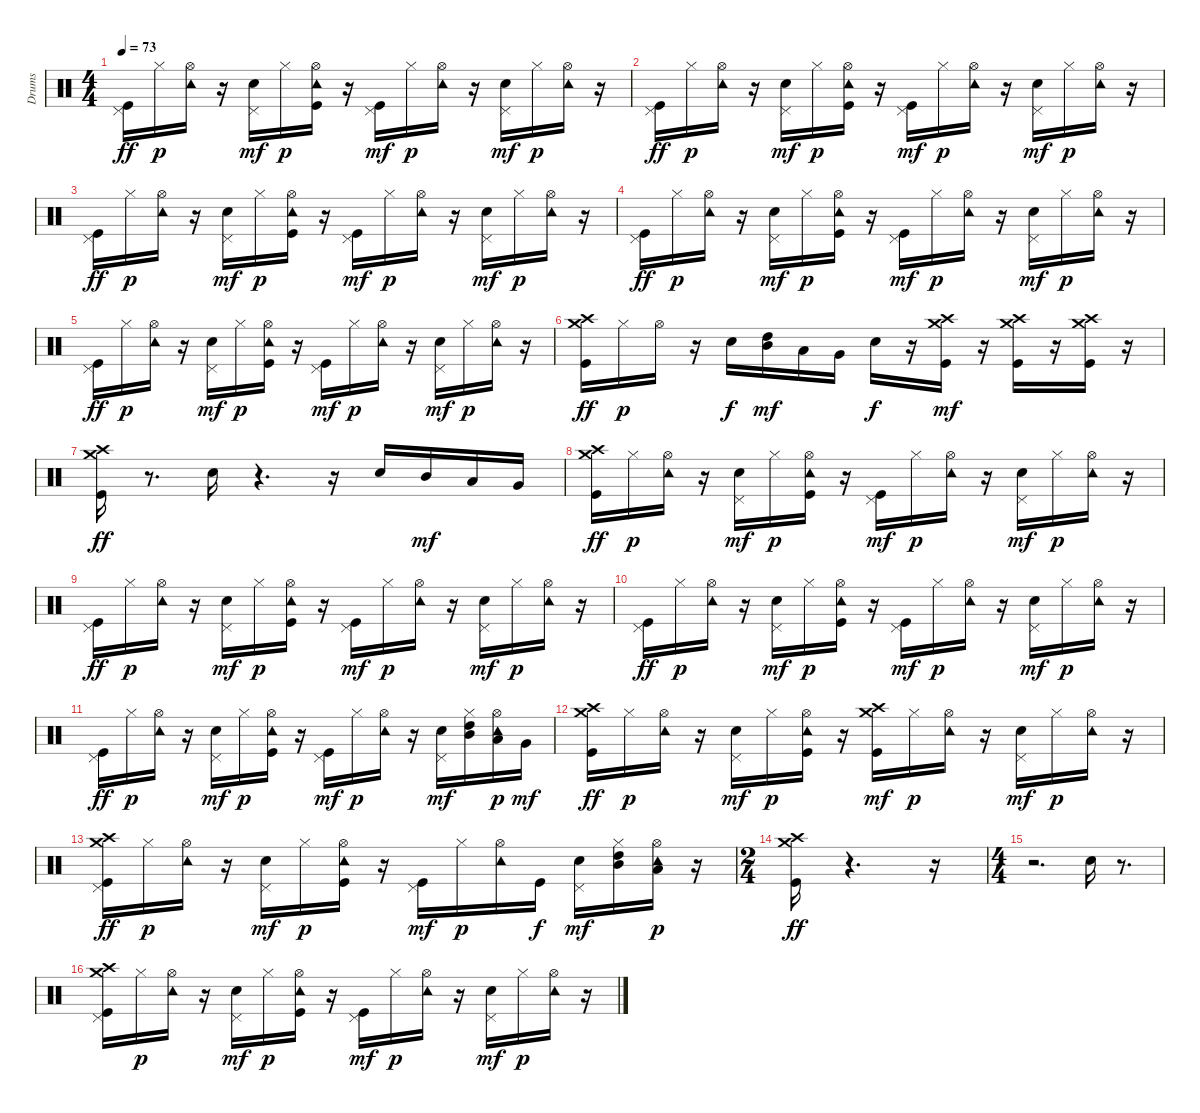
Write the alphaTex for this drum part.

\track ("Drums" "Drums") {instrument percussion}
\staff {score}
\articulation defaults
\ts (4 4)
\tempo 73
\clef neutral
\ks c
("Pedal Hi-Hat (hit)" "Kick (hit)").16{dy ff} "Hi-Hat (closed)".16{dy p} ("Tambourine (hit)" "Hi-Hat (open)").16 r.16 ("Pedal Hi-Hat (hit)" "Snare (hit) 2").16{dy mf} "Hi-Hat (closed)".16{dy p} ("Tambourine (hit)" "Hi-Hat (open)" "Kick (hit)").16 r.16 ("Pedal Hi-Hat (hit)" "Kick (hit)").16{dy mf} "Hi-Hat (closed)".16{dy p} ("Tambourine (hit)" "Hi-Hat (open)").16 r.16 ("Pedal Hi-Hat (hit)" "Snare (hit) 2").16{dy mf} "Hi-Hat (closed)".16{dy p} ("Tambourine (hit)" "Hi-Hat (open)").16 r.16 |
("Pedal Hi-Hat (hit)" "Kick (hit)").16{dy ff} "Hi-Hat (closed)".16{dy p} ("Tambourine (hit)" "Hi-Hat (open)").16 r.16 ("Pedal Hi-Hat (hit)" "Snare (hit) 2").16{dy mf} "Hi-Hat (closed)".16{dy p} ("Tambourine (hit)" "Hi-Hat (open)" "Kick (hit)").16 r.16 ("Pedal Hi-Hat (hit)" "Kick (hit)").16{dy mf} "Hi-Hat (closed)".16{dy p} ("Tambourine (hit)" "Hi-Hat (open)").16 r.16 ("Pedal Hi-Hat (hit)" "Snare (hit) 2").16{dy mf} "Hi-Hat (closed)".16{dy p} ("Tambourine (hit)" "Hi-Hat (open)").16 r.16 |
("Pedal Hi-Hat (hit)" "Kick (hit)").16{dy ff} "Hi-Hat (closed)".16{dy p} ("Tambourine (hit)" "Hi-Hat (open)").16 r.16 ("Pedal Hi-Hat (hit)" "Snare (hit) 2").16{dy mf} "Hi-Hat (closed)".16{dy p} ("Tambourine (hit)" "Hi-Hat (open)" "Kick (hit)").16 r.16 ("Pedal Hi-Hat (hit)" "Kick (hit)").16{dy mf} "Hi-Hat (closed)".16{dy p} ("Tambourine (hit)" "Hi-Hat (open)").16 r.16 ("Pedal Hi-Hat (hit)" "Snare (hit) 2").16{dy mf} "Hi-Hat (closed)".16{dy p} ("Tambourine (hit)" "Hi-Hat (open)").16 r.16 |
("Pedal Hi-Hat (hit)" "Kick (hit)").16{dy ff} "Hi-Hat (closed)".16{dy p} ("Tambourine (hit)" "Hi-Hat (open)").16 r.16 ("Pedal Hi-Hat (hit)" "Snare (hit) 2").16{dy mf} "Hi-Hat (closed)".16{dy p} ("Tambourine (hit)" "Hi-Hat (open)" "Kick (hit)").16 r.16 ("Pedal Hi-Hat (hit)" "Kick (hit)").16{dy mf} "Hi-Hat (closed)".16{dy p} ("Tambourine (hit)" "Hi-Hat (open)").16 r.16 ("Pedal Hi-Hat (hit)" "Snare (hit) 2").16{dy mf} "Hi-Hat (closed)".16{dy p} ("Tambourine (hit)" "Hi-Hat (open)").16 r.16 |
("Pedal Hi-Hat (hit)" "Kick (hit)").16{dy ff} "Hi-Hat (closed)".16{dy p} ("Tambourine (hit)" "Hi-Hat (open)").16 r.16 ("Pedal Hi-Hat (hit)" "Snare (hit) 2").16{dy mf} "Hi-Hat (closed)".16{dy p} ("Tambourine (hit)" "Hi-Hat (open)" "Kick (hit)").16 r.16 ("Pedal Hi-Hat (hit)" "Kick (hit)").16{dy mf} "Hi-Hat (closed)".16{dy p} ("Tambourine (hit)" "Hi-Hat (open)").16 r.16 ("Pedal Hi-Hat (hit)" "Snare (hit) 2").16{dy mf} "Hi-Hat (closed)".16{dy p} ("Tambourine (hit)" "Hi-Hat (open)").16 r.16 |
("Crash high (hit)" "Crash medium (hit)" "Kick (hit)").16{dy ff} "Hi-Hat (closed)".16{dy p} "Hi-Hat (open)".16 r.16 "Snare (hit) 2".16{dy f} ("Mid Tom (hit)" "High Tom (hit)").16{dy mf} "Low Tom (hit)".16 "Very Low Tom (hit)".16 "Snare (hit) 2".16{dy f} r.16 ("Crash high (hit)" "Crash medium (hit)" "Kick (hit)").16{dy mf} r.16 ("Crash high (hit)" "Crash medium (hit)" "Kick (hit)").16 r.16 ("Crash high (hit)" "Crash medium (hit)" "Kick (hit)").16 r.16 |
("Crash medium (hit)" "Crash high (hit)" "Kick (hit)").16{dy ff} r.8{d} "Snare (hit) 2".16 r.4{d} r.16 "Snare (hit) 2".16 "Mid Tom (hit)".16{dy mf} "Low Tom (hit)".16 "Very Low Tom (hit)".16 |
("Crash high (hit)" "Crash medium (hit)" "Kick (hit)").16{dy ff} "Hi-Hat (closed)".16{dy p} ("Tambourine (hit)" "Hi-Hat (open)").16 r.16 ("Pedal Hi-Hat (hit)" "Snare (hit) 2").16{dy mf} "Hi-Hat (closed)".16{dy p} ("Tambourine (hit)" "Hi-Hat (open)" "Kick (hit)").16 r.16 ("Pedal Hi-Hat (hit)" "Kick (hit)").16{dy mf} "Hi-Hat (closed)".16{dy p} ("Tambourine (hit)" "Hi-Hat (open)").16 r.16 ("Pedal Hi-Hat (hit)" "Snare (hit) 2").16{dy mf} "Hi-Hat (closed)".16{dy p} ("Tambourine (hit)" "Hi-Hat (open)").16 r.16 |
("Pedal Hi-Hat (hit)" "Kick (hit)").16{dy ff} "Hi-Hat (closed)".16{dy p} ("Tambourine (hit)" "Hi-Hat (open)").16 r.16 ("Pedal Hi-Hat (hit)" "Snare (hit) 2").16{dy mf} "Hi-Hat (closed)".16{dy p} ("Tambourine (hit)" "Hi-Hat (open)" "Kick (hit)").16 r.16 ("Pedal Hi-Hat (hit)" "Kick (hit)").16{dy mf} "Hi-Hat (closed)".16{dy p} ("Tambourine (hit)" "Hi-Hat (open)").16 r.16 ("Pedal Hi-Hat (hit)" "Snare (hit) 2").16{dy mf} "Hi-Hat (closed)".16{dy p} ("Tambourine (hit)" "Hi-Hat (open)").16 r.16 |
("Pedal Hi-Hat (hit)" "Kick (hit)").16{dy ff} "Hi-Hat (closed)".16{dy p} ("Tambourine (hit)" "Hi-Hat (open)").16 r.16 ("Pedal Hi-Hat (hit)" "Snare (hit) 2").16{dy mf} "Hi-Hat (closed)".16{dy p} ("Tambourine (hit)" "Hi-Hat (open)" "Kick (hit)").16 r.16 ("Pedal Hi-Hat (hit)" "Kick (hit)").16{dy mf} "Hi-Hat (closed)".16{dy p} ("Tambourine (hit)" "Hi-Hat (open)").16 r.16 ("Pedal Hi-Hat (hit)" "Snare (hit) 2").16{dy mf} "Hi-Hat (closed)".16{dy p} ("Tambourine (hit)" "Hi-Hat (open)").16 r.16 |
("Pedal Hi-Hat (hit)" "Kick (hit)").16{dy ff} "Hi-Hat (closed)".16{dy p} ("Tambourine (hit)" "Hi-Hat (open)").16 r.16 ("Pedal Hi-Hat (hit)" "Snare (hit) 2").16{dy mf} "Hi-Hat (closed)".16{dy p} ("Tambourine (hit)" "Hi-Hat (open)" "Kick (hit)").16 r.16 ("Pedal Hi-Hat (hit)" "Kick (hit)").16{dy mf} "Hi-Hat (closed)".16{dy p} ("Tambourine (hit)" "Hi-Hat (open)").16 r.16 ("Pedal Hi-Hat (hit)" "Snare (hit) 2").16{dy mf} ("Mid Tom (hit)" "Hi-Hat (closed)" "High Tom (hit)").16 ("Tambourine (hit)" "Low Tom (hit)" "Hi-Hat (open)").16{dy p} "Very Low Tom (hit)".16{dy mf} |
("Crash medium (hit)" "Crash high (hit)" "Kick (hit)").16{dy ff} "Hi-Hat (closed)".16{dy p} ("Tambourine (hit)" "Hi-Hat (open)").16 r.16 ("Pedal Hi-Hat (hit)" "Snare (hit) 2").16{dy mf} "Hi-Hat (closed)".16{dy p} ("Tambourine (hit)" "Hi-Hat (open)" "Kick (hit)").16 r.16 ("Crash medium (hit)" "Crash high (hit)" "Kick (hit)").16{dy mf} "Hi-Hat (closed)".16{dy p} ("Tambourine (hit)" "Hi-Hat (open)").16 r.16 ("Pedal Hi-Hat (hit)" "Snare (hit) 2").16{dy mf} "Hi-Hat (closed)".16{dy p} ("Tambourine (hit)" "Hi-Hat (open)").16 r.16 |
("Pedal Hi-Hat (hit)" "Crash medium (hit)" "Crash high (hit)" "Kick (hit)").16{dy ff} "Hi-Hat (closed)".16{dy p} ("Tambourine (hit)" "Hi-Hat (open)").16 r.16 ("Pedal Hi-Hat (hit)" "Snare (hit) 2").16{dy mf} "Hi-Hat (closed)".16{dy p} ("Tambourine (hit)" "Hi-Hat (open)" "Kick (hit)").16 r.16 ("Pedal Hi-Hat (hit)" "Kick (hit)").16{dy mf} "Hi-Hat (closed)".16{dy p} ("Tambourine (hit)" "Hi-Hat (open)").16 "Kick (hit)".16{dy f} ("Pedal Hi-Hat (hit)" "Snare (hit) 2").16{dy mf} ("Mid Tom (hit)" "Hi-Hat (closed)" "High Tom (hit)").16 ("Tambourine (hit)" "Low Tom (hit)" "Hi-Hat (open)").16{dy p} r.16 |
\ts (2 4)
("Crash medium (hit)" "Crash high (hit)" "Kick (hit)").16{dy ff} r.4{d} r.16 |
\ts (4 4)
r.2{d} "Snare (hit) 2".16 r.8{d} |
("Crash high (hit)" "Crash medium (hit)" "Pedal Hi-Hat (hit)" "Kick (hit)").16 "Hi-Hat (closed)".16{dy p} ("Tambourine (hit)" "Hi-Hat (open)").16 r.16 ("Pedal Hi-Hat (hit)" "Snare (hit) 2").16{dy mf} "Hi-Hat (closed)".16{dy p} ("Tambourine (hit)" "Hi-Hat (open)" "Kick (hit)").16 r.16 ("Pedal Hi-Hat (hit)" "Kick (hit)").16{dy mf} "Hi-Hat (closed)".16{dy p} ("Tambourine (hit)" "Hi-Hat (open)").16 r.16 ("Pedal Hi-Hat (hit)" "Snare (hit) 2").16{dy mf} "Hi-Hat (closed)".16{dy p} ("Tambourine (hit)" "Hi-Hat (open)").16 r.16
